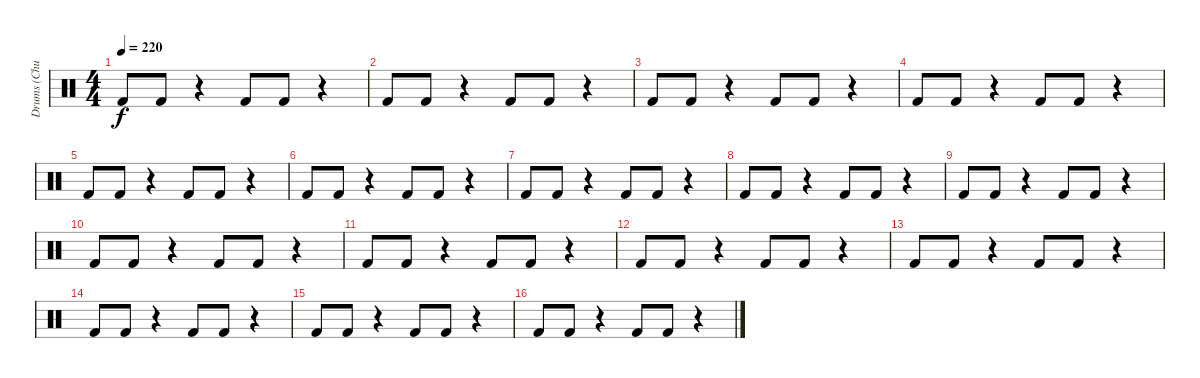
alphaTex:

\track ("Drums (Chuck Behler)" "Drums (Chu") {instrument percussion}
\staff {score}
\articulation defaults
\ts (4 4)
\tempo 220
\clef neutral
\ks c "Kick (hit) 2".8{dy f} "Kick (hit) 2".8
r.4 "Kick (hit) 2".8 "Kick (hit) 2".8 r.4 |
"Kick (hit) 2".8 "Kick (hit) 2".8 r.4 "Kick (hit) 2".8 "Kick (hit) 2".8 r.4 |
"Kick (hit) 2".8 "Kick (hit) 2".8 r.4 "Kick (hit) 2".8 "Kick (hit) 2".8 r.4 |
"Kick (hit) 2".8 "Kick (hit) 2".8 r.4 "Kick (hit) 2".8 "Kick (hit) 2".8 r.4 |
"Kick (hit) 2".8 "Kick (hit) 2".8 r.4 "Kick (hit) 2".8 "Kick (hit) 2".8 r.4 |
"Kick (hit) 2".8 "Kick (hit) 2".8 r.4 "Kick (hit) 2".8 "Kick (hit) 2".8 r.4 |
"Kick (hit) 2".8 "Kick (hit) 2".8 r.4 "Kick (hit) 2".8 "Kick (hit) 2".8 r.4 |
"Kick (hit) 2".8 "Kick (hit) 2".8 r.4 "Kick (hit) 2".8 "Kick (hit) 2".8 r.4 |
"Kick (hit) 2".8 "Kick (hit) 2".8 r.4 "Kick (hit) 2".8 "Kick (hit) 2".8 r.4 |
"Kick (hit) 2".8 "Kick (hit) 2".8 r.4 "Kick (hit) 2".8 "Kick (hit) 2".8 r.4 |
"Kick (hit) 2".8 "Kick (hit) 2".8 r.4 "Kick (hit) 2".8 "Kick (hit) 2".8 r.4 |
"Kick (hit) 2".8 "Kick (hit) 2".8 r.4 "Kick (hit) 2".8 "Kick (hit) 2".8 r.4 |
"Kick (hit) 2".8 "Kick (hit) 2".8 r.4 "Kick (hit) 2".8 "Kick (hit) 2".8 r.4 |
"Kick (hit) 2".8 "Kick (hit) 2".8 r.4 "Kick (hit) 2".8 "Kick (hit) 2".8 r.4 |
"Kick (hit) 2".8 "Kick (hit) 2".8 r.4 "Kick (hit) 2".8 "Kick (hit) 2".8 r.4 |
"Kick (hit) 2".8 "Kick (hit) 2".8 r.4 "Kick (hit) 2".8 "Kick (hit) 2".8 r.4
